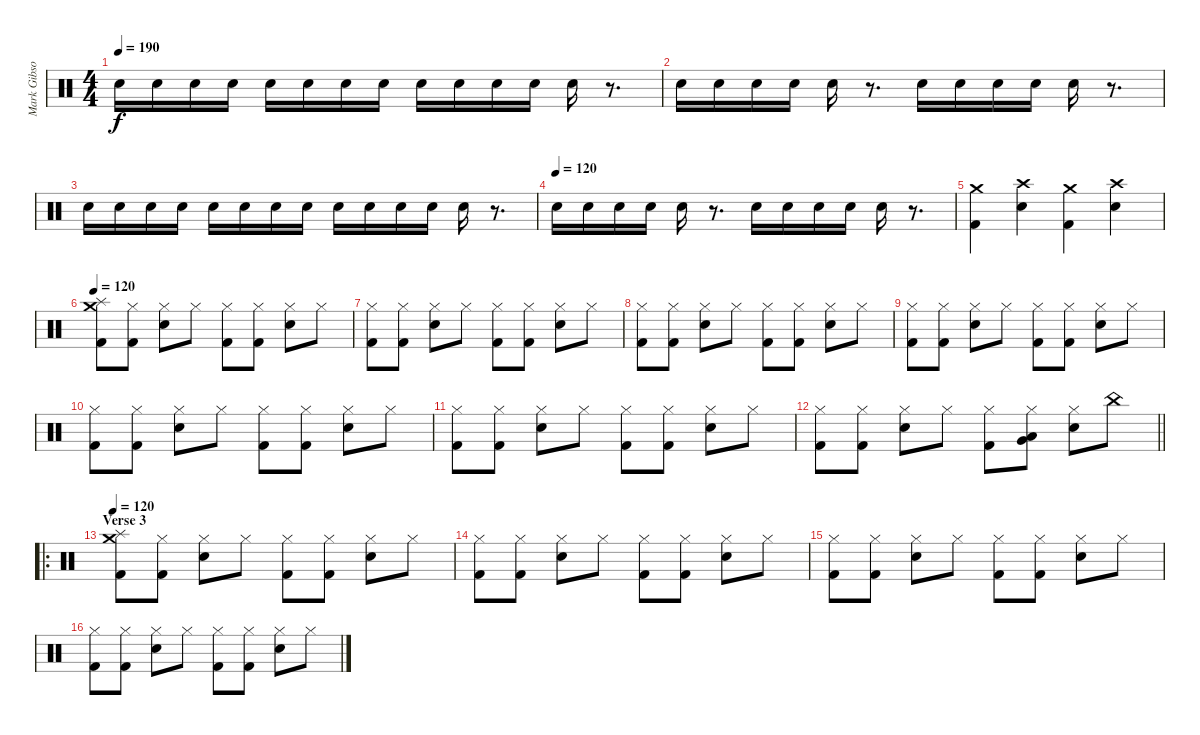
\track ("Mark Gibson" "Mark Gibso") {instrument percussion}
\staff {score}
\articulation defaults
\ts (4 4)
\tempo 190
\clef neutral
\ks c "Electric Snare (hit)".16{dy f} "Electric Snare (hit)".16 "Electric Snare (hit)".16 "Electric Snare (hit)".16 "Electric Snare (hit)".16 "Electric Snare (hit)".16 "Electric Snare (hit)".16 "Electric Snare (hit)".16 "Electric Snare (hit)".16 "Electric Snare (hit)".16 "Electric Snare (hit)".16 "Electric Snare (hit)".16 "Electric Snare (hit)".16
r.8{d} |
"Electric Snare (hit)".16 "Electric Snare (hit)".16 "Electric Snare (hit)".16 "Electric Snare (hit)".16 "Electric Snare (hit)".16 r.8{d} "Electric Snare (hit)".16 "Electric Snare (hit)".16 "Electric Snare (hit)".16 "Electric Snare (hit)".16 "Electric Snare (hit)".16 r.8{d} |
"Electric Snare (hit)".16 "Electric Snare (hit)".16 "Electric Snare (hit)".16 "Electric Snare (hit)".16 "Electric Snare (hit)".16 "Electric Snare (hit)".16 "Electric Snare (hit)".16 "Electric Snare (hit)".16 "Electric Snare (hit)".16 "Electric Snare (hit)".16 "Electric Snare (hit)".16 "Electric Snare (hit)".16 "Electric Snare (hit)".16 r.8{d} |
\tempo (120)
"Electric Snare (hit)".16 "Electric Snare (hit)".16 "Electric Snare (hit)".16 "Electric Snare (hit)".16 "Electric Snare (hit)".16 r.8{d} "Electric Snare (hit)".16 "Electric Snare (hit)".16 "Electric Snare (hit)".16 "Electric Snare (hit)".16 "Electric Snare (hit)".16 r.8{d} |
("Crash medium (hit)" "Kick (hit) 2").4 ("Crash high (hit)" "Electric Snare (hit)").4 ("Crash medium (hit)" "Kick (hit) 2").4 ("Crash high (hit)" "Electric Snare (hit)").4 |
\tempo 120
("Crash medium (hit)" "Splash (hit)" "Kick (hit) 2").8 ("Hi-Hat (closed)" "Kick (hit) 2").8 ("Hi-Hat (closed)" "Electric Snare (hit)").8 "Hi-Hat (closed)".8 ("Hi-Hat (closed)" "Kick (hit) 2").8 ("Hi-Hat (closed)" "Kick (hit) 2").8 ("Hi-Hat (closed)" "Electric Snare (hit)").8 "Hi-Hat (closed)".8 |
("Hi-Hat (closed)" "Kick (hit) 2").8 ("Hi-Hat (closed)" "Kick (hit) 2").8 ("Hi-Hat (closed)" "Electric Snare (hit)").8 "Hi-Hat (closed)".8 ("Hi-Hat (closed)" "Kick (hit) 2").8 ("Hi-Hat (closed)" "Kick (hit) 2").8 ("Hi-Hat (closed)" "Electric Snare (hit)").8 "Hi-Hat (closed)".8 |
("Hi-Hat (closed)" "Kick (hit) 2").8 ("Hi-Hat (closed)" "Kick (hit) 2").8 ("Hi-Hat (closed)" "Electric Snare (hit)").8 "Hi-Hat (closed)".8 ("Hi-Hat (closed)" "Kick (hit) 2").8 ("Hi-Hat (closed)" "Kick (hit) 2").8 ("Hi-Hat (closed)" "Electric Snare (hit)").8 "Hi-Hat (closed)".8 |
("Hi-Hat (closed)" "Kick (hit) 2").8 ("Hi-Hat (closed)" "Kick (hit) 2").8 ("Hi-Hat (closed)" "Electric Snare (hit)").8 "Hi-Hat (closed)".8 ("Hi-Hat (closed)" "Kick (hit) 2").8 ("Hi-Hat (closed)" "Kick (hit) 2").8 ("Hi-Hat (closed)" "Electric Snare (hit)").8 "Hi-Hat (closed)".8 |
("Hi-Hat (closed)" "Kick (hit) 2").8 ("Hi-Hat (closed)" "Kick (hit) 2").8 ("Hi-Hat (closed)" "Electric Snare (hit)").8 "Hi-Hat (closed)".8 ("Hi-Hat (closed)" "Kick (hit) 2").8 ("Hi-Hat (closed)" "Kick (hit) 2").8 ("Hi-Hat (closed)" "Electric Snare (hit)").8 "Hi-Hat (closed)".8 |
("Hi-Hat (closed)" "Kick (hit) 2").8 ("Hi-Hat (closed)" "Kick (hit) 2").8 ("Hi-Hat (closed)" "Electric Snare (hit)").8 "Hi-Hat (closed)".8 ("Hi-Hat (closed)" "Kick (hit) 2").8 ("Hi-Hat (closed)" "Kick (hit) 2").8 ("Hi-Hat (closed)" "Electric Snare (hit)").8 "Hi-Hat (closed)".8 |
\barLineRight lightlight
("Hi-Hat (closed)" "Kick (hit) 2").8 ("Hi-Hat (closed)" "Kick (hit) 2").8 ("Hi-Hat (closed)" "Electric Snare (hit)").8 "Hi-Hat (closed)".8 ("Hi-Hat (closed)" "Kick (hit) 2").8 ("Hi-Hat (closed)" "Low Floor Tom (hit)" "Very Low Tom (hit)").8 ("Hi-Hat (closed)" "Electric Snare (hit)").8 "China (hit)".8 |
\ro
\section ("" "Verse 3")
\tempo 120
("Crash medium (hit)" "Splash (hit)" "Kick (hit) 2").8 ("Hi-Hat (closed)" "Kick (hit) 2").8 ("Hi-Hat (closed)" "Electric Snare (hit)").8 "Hi-Hat (closed)".8 ("Hi-Hat (closed)" "Kick (hit) 2").8 ("Hi-Hat (closed)" "Kick (hit) 2").8 ("Hi-Hat (closed)" "Electric Snare (hit)").8 "Hi-Hat (closed)".8 |
("Hi-Hat (closed)" "Kick (hit) 2").8 ("Hi-Hat (closed)" "Kick (hit) 2").8 ("Hi-Hat (closed)" "Electric Snare (hit)").8 "Hi-Hat (closed)".8 ("Hi-Hat (closed)" "Kick (hit) 2").8 ("Hi-Hat (closed)" "Kick (hit) 2").8 ("Hi-Hat (closed)" "Electric Snare (hit)").8 "Hi-Hat (closed)".8 |
("Hi-Hat (closed)" "Kick (hit) 2").8 ("Hi-Hat (closed)" "Kick (hit) 2").8 ("Hi-Hat (closed)" "Electric Snare (hit)").8 "Hi-Hat (closed)".8 ("Hi-Hat (closed)" "Kick (hit) 2").8 ("Hi-Hat (closed)" "Kick (hit) 2").8 ("Hi-Hat (closed)" "Electric Snare (hit)").8 "Hi-Hat (closed)".8 |
("Hi-Hat (closed)" "Kick (hit) 2").8 ("Hi-Hat (closed)" "Kick (hit) 2").8 ("Hi-Hat (closed)" "Electric Snare (hit)").8 "Hi-Hat (closed)".8 ("Hi-Hat (closed)" "Kick (hit) 2").8 ("Hi-Hat (closed)" "Kick (hit) 2").8 ("Hi-Hat (closed)" "Electric Snare (hit)").8 "Hi-Hat (closed)".8
